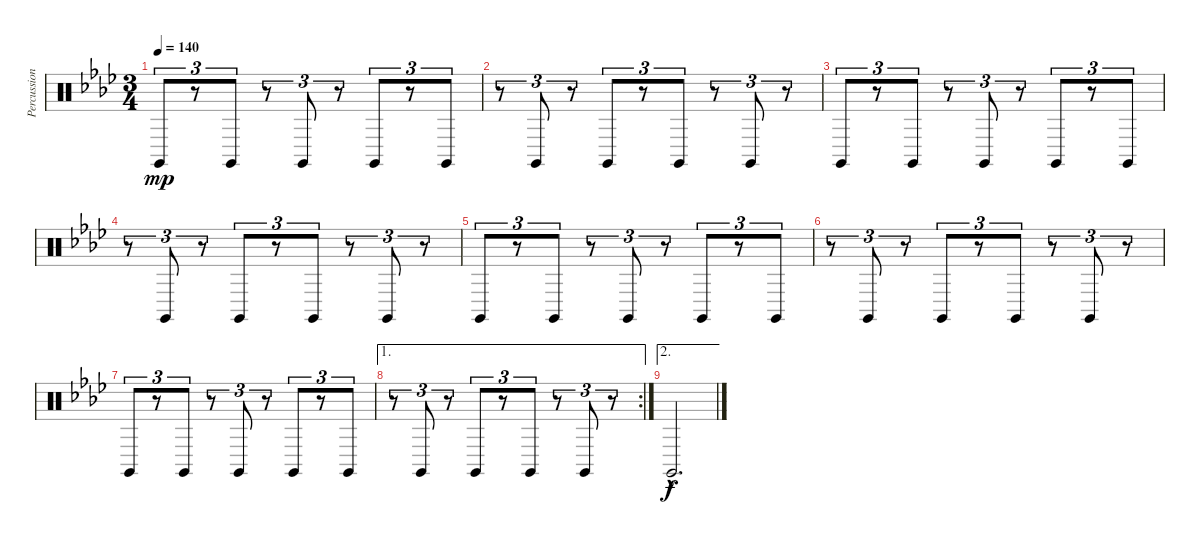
\track ("Percussion" "Percussion") {instrument percussion}
\staff {score}
\articulation defaults
\ts (3 4)
\tempo 140
\clef neutral
\ks fminor "Claves (hit)".8{tu (3 2) dy mp}
r.8{tu (3 2)} "Claves (hit)".8{tu (3 2)} r.8{tu (3 2)} "Claves (hit)".8{tu (3 2)} r.8{tu (3 2)} "Claves (hit)".8{tu (3 2)} r.8{tu (3 2)} "Claves (hit)".8{tu (3 2)} |
r.8{tu (3 2)} "Claves (hit)".8{tu (3 2)} r.8{tu (3 2)} "Claves (hit)".8{tu (3 2)} r.8{tu (3 2)} "Claves (hit)".8{tu (3 2)} r.8{tu (3 2)} "Claves (hit)".8{tu (3 2)} r.8{tu (3 2)} |
"Claves (hit)".8{tu (3 2)} r.8{tu (3 2)} "Claves (hit)".8{tu (3 2)} r.8{tu (3 2)} "Claves (hit)".8{tu (3 2)} r.8{tu (3 2)} "Claves (hit)".8{tu (3 2)} r.8{tu (3 2)} "Claves (hit)".8{tu (3 2)} |
r.8{tu (3 2)} "Claves (hit)".8{tu (3 2)} r.8{tu (3 2)} "Claves (hit)".8{tu (3 2)} r.8{tu (3 2)} "Claves (hit)".8{tu (3 2)} r.8{tu (3 2)} "Claves (hit)".8{tu (3 2)} r.8{tu (3 2)} |
"Claves (hit)".8{tu (3 2)} r.8{tu (3 2)} "Claves (hit)".8{tu (3 2)} r.8{tu (3 2)} "Claves (hit)".8{tu (3 2)} r.8{tu (3 2)} "Claves (hit)".8{tu (3 2)} r.8{tu (3 2)} "Claves (hit)".8{tu (3 2)} |
r.8{tu (3 2)} "Claves (hit)".8{tu (3 2)} r.8{tu (3 2)} "Claves (hit)".8{tu (3 2)} r.8{tu (3 2)} "Claves (hit)".8{tu (3 2)} r.8{tu (3 2)} "Claves (hit)".8{tu (3 2)} r.8{tu (3 2)} |
"Claves (hit)".8{tu (3 2)} r.8{tu (3 2)} "Claves (hit)".8{tu (3 2)} r.8{tu (3 2)} "Claves (hit)".8{tu (3 2)} r.8{tu (3 2)} "Claves (hit)".8{tu (3 2)} r.8{tu (3 2)} "Claves (hit)".8{tu (3 2)} |
\ae 1
\rc 2
r.8{tu (3 2)} "Claves (hit)".8{tu (3 2)} r.8{tu (3 2)} "Claves (hit)".8{tu (3 2)} r.8{tu (3 2)} "Claves (hit)".8{tu (3 2)} r.8{tu (3 2)} "Claves (hit)".8{tu (3 2)} r.8{tu (3 2)} |
\ae 2 "Claves (hit)"{hac}.2{d dy f}
